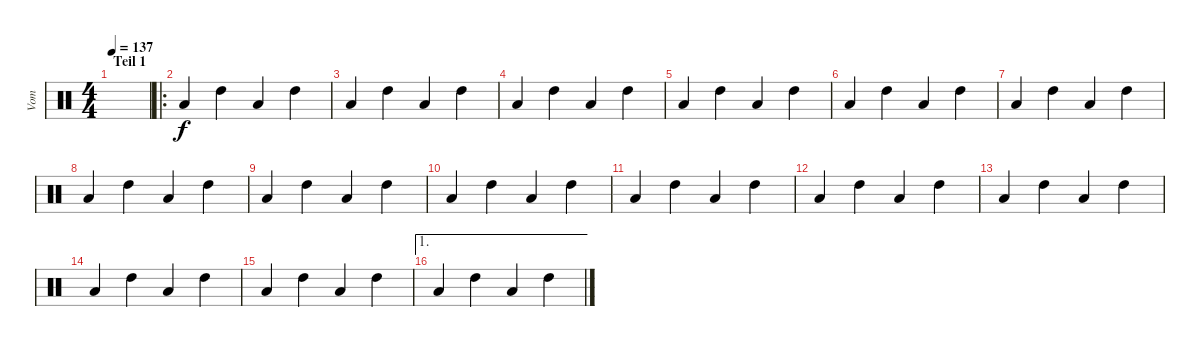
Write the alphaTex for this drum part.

\track ("Vom" "Vom") {instrument percussion}
\staff {score}
\articulation defaults
\ts (4 4)
\section ("" "Teil 1")
\tempo 137
\clef neutral
\ks c
|
\ro "Low Tom (hit)".4 "High Tom (hit)".4 "Low Tom (hit)".4 "High Tom (hit)".4
|
"Low Tom (hit)".4 "High Tom (hit)".4 "Low Tom (hit)".4 "High Tom (hit)".4 |
"Low Tom (hit)".4 "High Tom (hit)".4 "Low Tom (hit)".4 "High Tom (hit)".4 |
"Low Tom (hit)".4 "High Tom (hit)".4 "Low Tom (hit)".4 "High Tom (hit)".4 |
"Low Tom (hit)".4 "High Tom (hit)".4 "Low Tom (hit)".4 "High Tom (hit)".4 |
"Low Tom (hit)".4 "High Tom (hit)".4 "Low Tom (hit)".4 "High Tom (hit)".4 |
"Low Tom (hit)".4 "High Tom (hit)".4 "Low Tom (hit)".4 "High Tom (hit)".4 |
"Low Tom (hit)".4 "High Tom (hit)".4 "Low Tom (hit)".4 "High Tom (hit)".4 |
"Low Tom (hit)".4 "High Tom (hit)".4 "Low Tom (hit)".4 "High Tom (hit)".4 |
"Low Tom (hit)".4 "High Tom (hit)".4 "Low Tom (hit)".4 "High Tom (hit)".4 |
"Low Tom (hit)".4 "High Tom (hit)".4 "Low Tom (hit)".4 "High Tom (hit)".4 |
"Low Tom (hit)".4 "High Tom (hit)".4 "Low Tom (hit)".4 "High Tom (hit)".4 |
"Low Tom (hit)".4 "High Tom (hit)".4 "Low Tom (hit)".4 "High Tom (hit)".4 |
"Low Tom (hit)".4 "High Tom (hit)".4 "Low Tom (hit)".4 "High Tom (hit)".4 |
\ae 1 "Low Tom (hit)".4 "High Tom (hit)".4 "Low Tom (hit)".4 "High Tom (hit)".4
